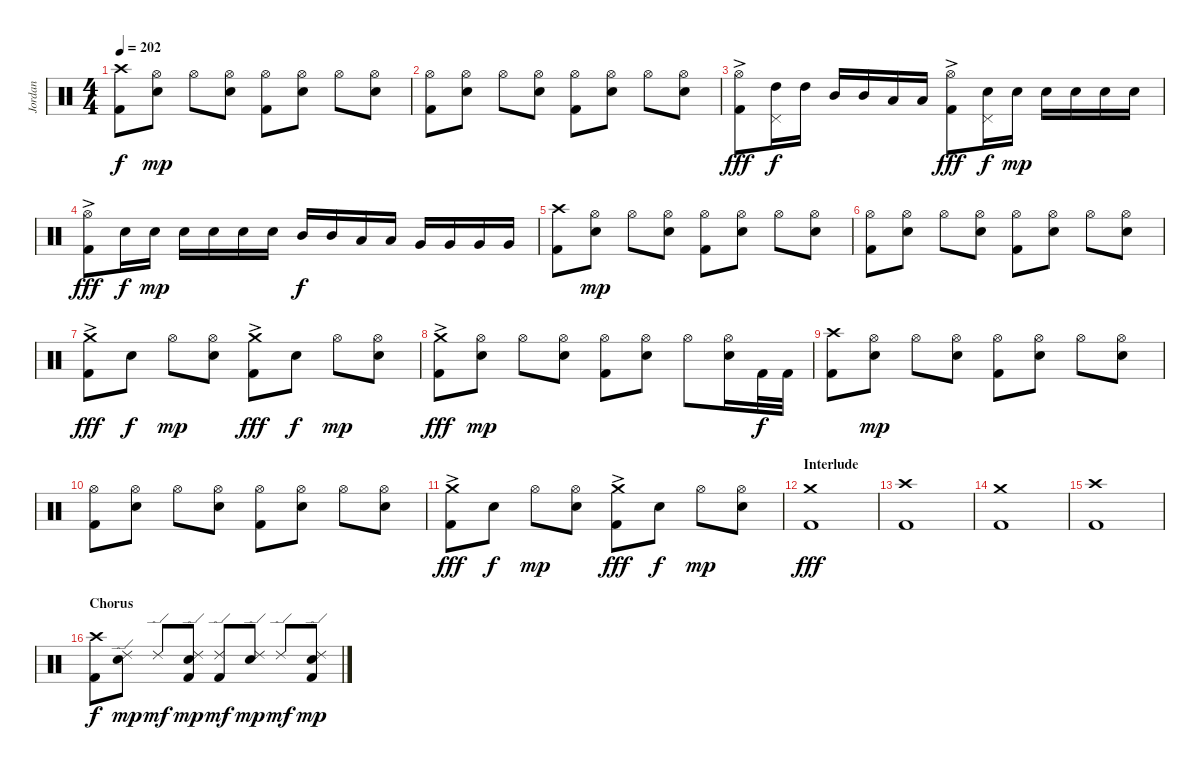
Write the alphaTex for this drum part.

\track ("Jordan" "Jordan") {instrument percussion}
\staff {score}
\articulation defaults
\ts (4 4)
\tempo 202
\clef neutral
\ks c
("Crash high (hit)" "Kick (hit) 2").8{dy f} ("Hi-Hat (open)" "Electric Snare (hit)").8{dy mp} "Hi-Hat (open)".8 ("Hi-Hat (open)" "Electric Snare (hit)").8 ("Hi-Hat (open)" "Kick (hit) 2").8 ("Hi-Hat (open)" "Electric Snare (hit)").8 "Hi-Hat (open)".8 ("Hi-Hat (open)" "Electric Snare (hit)").8 |
("Hi-Hat (open)" "Kick (hit) 2").8 ("Hi-Hat (open)" "Electric Snare (hit)").8 "Hi-Hat (open)".8 ("Hi-Hat (open)" "Electric Snare (hit)").8 ("Hi-Hat (open)" "Kick (hit) 2").8 ("Hi-Hat (open)" "Electric Snare (hit)").8 "Hi-Hat (open)".8 ("Hi-Hat (open)" "Electric Snare (hit)").8 |
("Hi-Hat (open)" "Kick (hit) 2"{ac}).8{dy fff} ("High Tom (hit)" "Pedal Hi-Hat (hit)").16{dy f} "High Tom (hit)".16 "Mid Tom (hit)".16 "Mid Tom (hit)".16 "Low Tom (hit)".16 "Low Tom (hit)".16 ("Hi-Hat (open)" "Kick (hit) 2"{ac}).8{dy fff} ("Electric Snare (hit)" "Pedal Hi-Hat (hit)").16{dy f} "Electric Snare (hit)".16{dy mp} "Electric Snare (hit)".16 "Electric Snare (hit)".16 "Electric Snare (hit)".16 "Electric Snare (hit)".16 |
("Hi-Hat (open)" "Kick (hit) 2"{ac}).8{dy fff} "Electric Snare (hit)".16{dy f} "Electric Snare (hit)".16{dy mp} "Electric Snare (hit)".16 "Electric Snare (hit)".16 "Electric Snare (hit)".16 "Electric Snare (hit)".16 "Mid Tom (hit)".16{dy f} "Mid Tom (hit)".16 "Low Tom (hit)".16 "Low Tom (hit)".16 "Very Low Tom (hit)".16 "Very Low Tom (hit)".16 "Very Low Tom (hit)".16 "Very Low Tom (hit)".16 |
("Crash high (hit)" "Kick (hit) 2").8 ("Hi-Hat (open)" "Electric Snare (hit)").8{dy mp} "Hi-Hat (open)".8 ("Hi-Hat (open)" "Electric Snare (hit)").8 ("Hi-Hat (open)" "Kick (hit) 2").8 ("Hi-Hat (open)" "Electric Snare (hit)").8 "Hi-Hat (open)".8 ("Hi-Hat (open)" "Electric Snare (hit)").8 |
("Hi-Hat (open)" "Kick (hit) 2").8 ("Hi-Hat (open)" "Electric Snare (hit)").8 "Hi-Hat (open)".8 ("Hi-Hat (open)" "Electric Snare (hit)").8 ("Hi-Hat (open)" "Kick (hit) 2").8 ("Hi-Hat (open)" "Electric Snare (hit)").8 "Hi-Hat (open)".8 ("Hi-Hat (open)" "Electric Snare (hit)").8 |
("Crash medium (hit)" "Kick (hit) 2"{ac}).8{dy fff} "Electric Snare (hit)".8{dy f} "Hi-Hat (open)".8{dy mp} ("Hi-Hat (open)" "Electric Snare (hit)").8 ("Crash medium (hit)" "Kick (hit) 2"{ac}).8{dy fff} "Electric Snare (hit)".8{dy f} "Hi-Hat (open)".8{dy mp} ("Hi-Hat (open)" "Electric Snare (hit)").8 |
("Crash medium (hit)" "Kick (hit) 2"{ac}).8{dy fff} ("Hi-Hat (open)" "Electric Snare (hit)").8{dy mp} "Hi-Hat (open)".8 ("Hi-Hat (open)" "Electric Snare (hit)").8 ("Hi-Hat (open)" "Kick (hit) 2").8 ("Hi-Hat (open)" "Electric Snare (hit)").8 "Hi-Hat (open)".8 ("Hi-Hat (open)" "Electric Snare (hit)").16 "Kick (hit) 2".32{dy f} "Kick (hit) 2".32 |
("Crash high (hit)" "Kick (hit) 2").8 ("Hi-Hat (open)" "Electric Snare (hit)").8{dy mp} "Hi-Hat (open)".8 ("Hi-Hat (open)" "Electric Snare (hit)").8 ("Hi-Hat (open)" "Kick (hit) 2").8 ("Hi-Hat (open)" "Electric Snare (hit)").8 "Hi-Hat (open)".8 ("Hi-Hat (open)" "Electric Snare (hit)").8 |
("Hi-Hat (open)" "Kick (hit) 2").8 ("Hi-Hat (open)" "Electric Snare (hit)").8 "Hi-Hat (open)".8 ("Hi-Hat (open)" "Electric Snare (hit)").8 ("Hi-Hat (open)" "Kick (hit) 2").8 ("Hi-Hat (open)" "Electric Snare (hit)").8 "Hi-Hat (open)".8 ("Hi-Hat (open)" "Electric Snare (hit)").8 |
("Crash medium (hit)" "Kick (hit) 2"{ac}).8{dy fff} "Electric Snare (hit)".8{dy f} "Hi-Hat (open)".8{dy mp} ("Hi-Hat (open)" "Electric Snare (hit)").8 ("Crash medium (hit)" "Kick (hit) 2"{ac}).8{dy fff} "Electric Snare (hit)".8{dy f} "Hi-Hat (open)".8{dy mp} ("Hi-Hat (open)" "Electric Snare (hit)").8 |
\section ("" "Interlude")
("Crash medium (hit)" "Kick (hit) 2").1{dy fff} |
("Crash high (hit)" "Kick (hit) 2").1 |
("Crash medium (hit)" "Kick (hit) 2").1 |
("Crash high (hit)" "Kick (hit) 2").1 |
\section ("" "Chorus")
("Crash high (hit)" "Kick (hit) 2").8{dy f} ("Ride (edge) 2" "Electric Snare (hit)").8{dy mp} "Ride (edge) 2".8{dy mf} ("Ride (edge) 2" "Electric Snare (hit)" "Kick (hit) 2").8{dy mp} ("Ride (edge) 2" "Kick (hit) 2").8{dy mf} ("Ride (edge) 2" "Electric Snare (hit)").8{dy mp} "Ride (edge) 2".8{dy mf} ("Ride (edge) 2" "Electric Snare (hit)" "Kick (hit) 2").8{dy mp}
